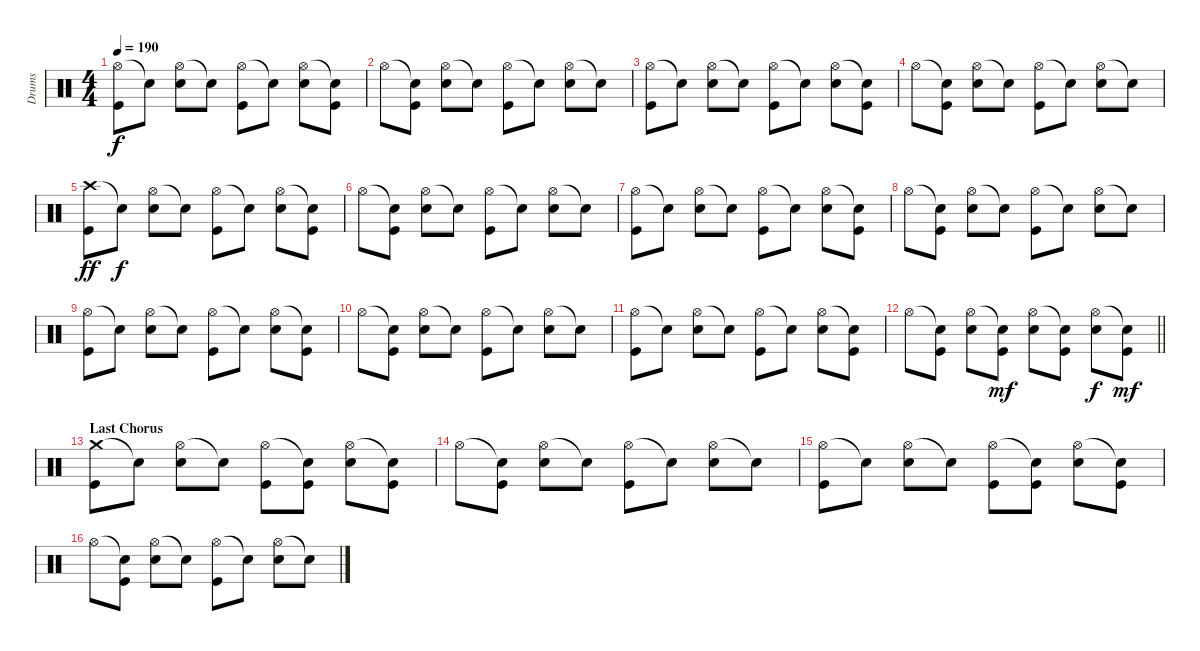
\track ("Drums" "Drums") {instrument percussion}
\staff {score}
\articulation defaults
\ts (4 4)
\tempo 190
\clef neutral
\ks c
("Hi-Hat (open)" "Kick (hit)").8{dy f} "Snare (hit)"{t}.8 ("Hi-Hat (open)" "Snare (hit) 2").8 "Snare (hit)"{t}.8 ("Hi-Hat (open)" "Kick (hit)").8 "Snare (hit)"{t}.8 ("Hi-Hat (open)" "Snare (hit) 2").8 ("Snare (hit)"{t} "Kick (hit)").8 |
"Hi-Hat (open)".8 ("Snare (hit)"{t} "Kick (hit)").8 ("Hi-Hat (open)" "Snare (hit) 2").8 "Snare (hit)"{t}.8 ("Hi-Hat (open)" "Kick (hit)").8 "Snare (hit)"{t}.8 ("Hi-Hat (open)" "Snare (hit) 2").8 "Snare (hit)"{t}.8 |
("Hi-Hat (open)" "Kick (hit)").8 "Snare (hit)"{t}.8 ("Hi-Hat (open)" "Snare (hit) 2").8 "Snare (hit)"{t}.8 ("Hi-Hat (open)" "Kick (hit)").8 "Snare (hit)"{t}.8 ("Hi-Hat (open)" "Snare (hit) 2").8 ("Snare (hit)"{t} "Kick (hit)").8 |
"Hi-Hat (open)".8 ("Snare (hit)"{t} "Kick (hit)").8 ("Hi-Hat (open)" "Snare (hit) 2").8 "Snare (hit)"{t}.8 ("Hi-Hat (open)" "Kick (hit)").8 "Snare (hit)"{t}.8 ("Hi-Hat (open)" "Snare (hit) 2").8 "Snare (hit)"{t}.8 |
("Crash high (hit)" "Kick (hit)").8{dy ff} "Snare (hit)"{t}.8{dy f} ("Hi-Hat (open)" "Snare (hit) 2").8 "Snare (hit)"{t}.8 ("Hi-Hat (open)" "Kick (hit)").8 "Snare (hit)"{t}.8 ("Hi-Hat (open)" "Snare (hit) 2").8 ("Snare (hit)"{t} "Kick (hit)").8 |
"Hi-Hat (open)".8 ("Snare (hit)"{t} "Kick (hit)").8 ("Hi-Hat (open)" "Snare (hit) 2").8 "Snare (hit)"{t}.8 ("Hi-Hat (open)" "Kick (hit)").8 "Snare (hit)"{t}.8 ("Hi-Hat (open)" "Snare (hit) 2").8 "Snare (hit)"{t}.8 |
("Hi-Hat (open)" "Kick (hit)").8 "Snare (hit)"{t}.8 ("Hi-Hat (open)" "Snare (hit) 2").8 "Snare (hit)"{t}.8 ("Hi-Hat (open)" "Kick (hit)").8 "Snare (hit)"{t}.8 ("Hi-Hat (open)" "Snare (hit) 2").8 ("Snare (hit)"{t} "Kick (hit)").8 |
"Hi-Hat (open)".8 ("Snare (hit)"{t} "Kick (hit)").8 ("Hi-Hat (open)" "Snare (hit) 2").8 "Snare (hit)"{t}.8 ("Hi-Hat (open)" "Kick (hit)").8 "Snare (hit)"{t}.8 ("Hi-Hat (open)" "Snare (hit) 2").8 "Snare (hit)"{t}.8 |
("Hi-Hat (open)" "Kick (hit)").8 "Snare (hit)"{t}.8 ("Hi-Hat (open)" "Snare (hit) 2").8 "Snare (hit)"{t}.8 ("Hi-Hat (open)" "Kick (hit)").8 "Snare (hit)"{t}.8 ("Hi-Hat (open)" "Snare (hit) 2").8 ("Snare (hit)"{t} "Kick (hit)").8 |
"Hi-Hat (open)".8 ("Snare (hit)"{t} "Kick (hit)").8 ("Hi-Hat (open)" "Snare (hit) 2").8 "Snare (hit)"{t}.8 ("Hi-Hat (open)" "Kick (hit)").8 "Snare (hit)"{t}.8 ("Hi-Hat (open)" "Snare (hit) 2").8 "Snare (hit)"{t}.8 |
("Hi-Hat (open)" "Kick (hit)").8 "Snare (hit)"{t}.8 ("Hi-Hat (open)" "Snare (hit) 2").8 "Snare (hit)"{t}.8 ("Hi-Hat (open)" "Kick (hit)").8 "Snare (hit)"{t}.8 ("Hi-Hat (open)" "Snare (hit) 2").8 ("Snare (hit)"{t} "Kick (hit)").8 |
\barLineRight lightlight "Hi-Hat (open)".8
("Snare (hit)"{t} "Kick (hit)").8 ("Hi-Hat (open)" "Snare (hit) 2").8 ("Snare (hit)"{t} "Kick (hit)").8{dy mf} ("Hi-Hat (open)" "Snare (hit) 2").8 ("Snare (hit)"{t} "Kick (hit)").8 ("Hi-Hat (open)" "Snare (hit) 2").8{dy f} ("Snare (hit)"{t} "Kick (hit)").8{dy mf} |
\section ("" "Last Chorus")
("Crash medium (hit)" "Kick (hit)").8 "Snare (hit)"{t}.8 ("Hi-Hat (open)" "Snare (hit) 2").8 "Snare (hit)"{t}.8 ("Hi-Hat (open)" "Kick (hit)").8 ("Snare (hit)"{t} "Kick (hit)").8 ("Hi-Hat (open)" "Snare (hit) 2").8 ("Snare (hit)"{t} "Kick (hit)").8 |
"Hi-Hat (open)".8 ("Snare (hit)"{t} "Kick (hit)").8 ("Hi-Hat (open)" "Snare (hit) 2").8 "Snare (hit)"{t}.8 ("Hi-Hat (open)" "Kick (hit)").8 "Snare (hit)"{t}.8 ("Hi-Hat (open)" "Snare (hit) 2").8 "Snare (hit)"{t}.8 |
("Hi-Hat (open)" "Kick (hit)").8 "Snare (hit)"{t}.8 ("Hi-Hat (open)" "Snare (hit) 2").8 "Snare (hit)"{t}.8 ("Hi-Hat (open)" "Kick (hit)").8 ("Snare (hit)"{t} "Kick (hit)").8 ("Hi-Hat (open)" "Snare (hit) 2").8 ("Snare (hit)"{t} "Kick (hit)").8 |
"Hi-Hat (open)".8 ("Snare (hit)"{t} "Kick (hit)").8 ("Hi-Hat (open)" "Snare (hit) 2").8 "Snare (hit)"{t}.8 ("Hi-Hat (open)" "Kick (hit)").8 "Snare (hit)"{t}.8 ("Hi-Hat (open)" "Snare (hit) 2").8 "Snare (hit)"{t}.8
